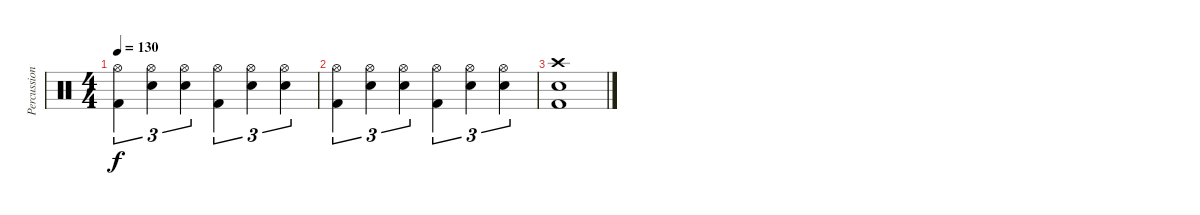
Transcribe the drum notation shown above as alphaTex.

\track ("Percussions" "Percussion") {instrument percussion}
\staff {score}
\articulation defaults
\ts (4 4)
\tempo 130
\clef neutral
\ks c
("Hi-Hat (open)" "Kick (hit) 2").4{tu (3 2) dy f} ("Hi-Hat (open)" "Electric Snare (hit)").4{tu (3 2)} ("Hi-Hat (open)" "Electric Snare (hit)").4{tu (3 2)} ("Hi-Hat (open)" "Kick (hit) 2").4{tu (3 2)} ("Hi-Hat (open)" "Electric Snare (hit)").4{tu (3 2)} ("Hi-Hat (open)" "Electric Snare (hit)").4{tu (3 2)} |
("Hi-Hat (open)" "Kick (hit) 2").4{tu (3 2)} ("Hi-Hat (open)" "Electric Snare (hit)").4{tu (3 2)} ("Hi-Hat (open)" "Electric Snare (hit)").4{tu (3 2)} ("Hi-Hat (open)" "Kick (hit) 2").4{tu (3 2)} ("Hi-Hat (open)" "Electric Snare (hit)").4{tu (3 2)} ("Hi-Hat (open)" "Electric Snare (hit)").4{tu (3 2)} |
("Crash high (hit)" "Electric Snare (hit)" "Kick (hit) 2").1
